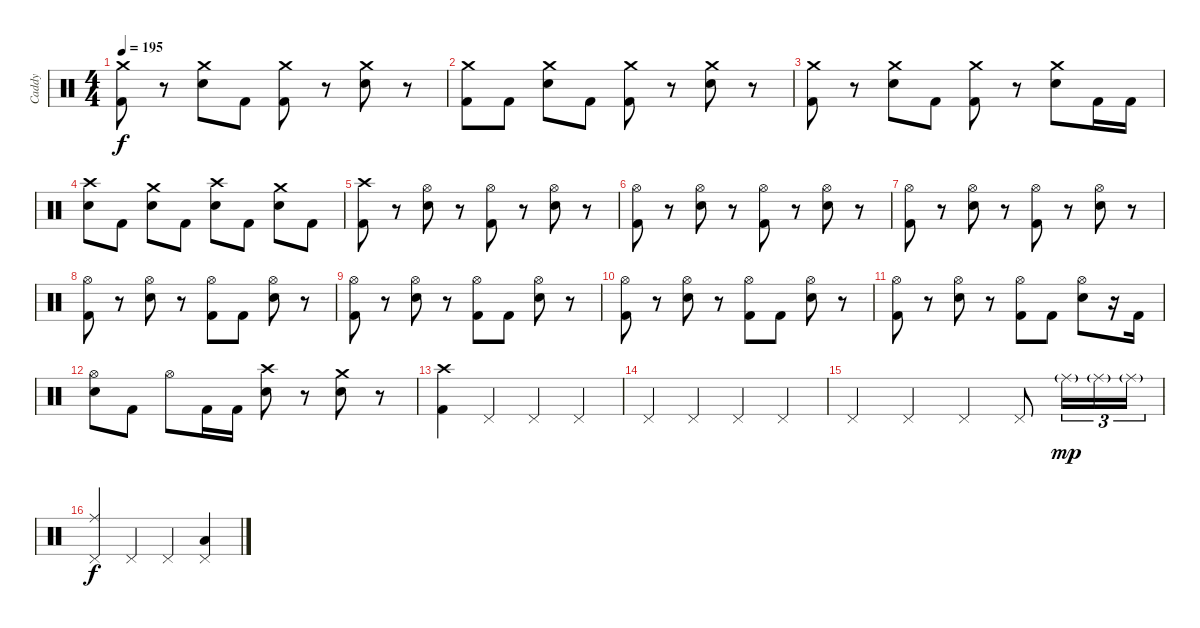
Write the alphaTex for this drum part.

\track ("Caddy" "Caddy") {instrument percussion}
\staff {score}
\articulation defaults
\ts (4 4)
\tempo 195
\clef neutral
\ks c
("Crash medium (hit)" "Kick (hit) 2").8{dy f} r.8 ("Crash medium (hit)" "Electric Snare (hit)").8 "Kick (hit) 2".8 ("Crash medium (hit)" "Kick (hit) 2").8 r.8 ("Crash medium (hit)" "Electric Snare (hit)").8 r.8 |
("Crash medium (hit)" "Kick (hit) 2").8 "Kick (hit) 2".8 ("Crash medium (hit)" "Electric Snare (hit)").8 "Kick (hit) 2".8 ("Crash medium (hit)" "Kick (hit) 2").8 r.8 ("Crash medium (hit)" "Electric Snare (hit)").8 r.8 |
("Crash medium (hit)" "Kick (hit) 2").8 r.8 ("Crash medium (hit)" "Electric Snare (hit)").8 "Kick (hit) 2".8 ("Crash medium (hit)" "Kick (hit) 2").8 r.8 ("Crash medium (hit)" "Electric Snare (hit)").8 "Kick (hit) 2".16 "Kick (hit) 2".16 |
("Crash high (hit)" "Electric Snare (hit)").8 "Kick (hit) 2".8 ("Crash medium (hit)" "Electric Snare (hit)").8 "Kick (hit) 2".8 ("Crash high (hit)" "Electric Snare (hit)").8 "Kick (hit) 2".8 ("Crash medium (hit)" "Electric Snare (hit)").8 "Kick (hit) 2".8 |
("Crash high (hit)" "Kick (hit) 2").8 r.8 ("Hi-Hat (open)" "Electric Snare (hit)").8 r.8 ("Hi-Hat (open)" "Kick (hit) 2").8 r.8 ("Hi-Hat (open)" "Electric Snare (hit)").8 r.8 |
("Hi-Hat (open)" "Kick (hit) 2").8 r.8 ("Hi-Hat (open)" "Electric Snare (hit)").8 r.8 ("Hi-Hat (open)" "Kick (hit) 2").8 r.8 ("Hi-Hat (open)" "Electric Snare (hit)").8 r.8 |
("Hi-Hat (open)" "Kick (hit) 2").8 r.8 ("Hi-Hat (open)" "Electric Snare (hit)").8 r.8 ("Hi-Hat (open)" "Kick (hit) 2").8 r.8 ("Hi-Hat (open)" "Electric Snare (hit)").8 r.8 |
("Hi-Hat (open)" "Kick (hit) 2").8 r.8 ("Hi-Hat (open)" "Electric Snare (hit)").8 r.8 ("Hi-Hat (open)" "Kick (hit) 2").8 "Kick (hit) 2".8 ("Hi-Hat (open)" "Electric Snare (hit)").8 r.8 |
("Hi-Hat (open)" "Kick (hit) 2").8 r.8 ("Hi-Hat (open)" "Electric Snare (hit)").8 r.8 ("Hi-Hat (open)" "Kick (hit) 2").8 "Kick (hit) 2".8 ("Hi-Hat (open)" "Electric Snare (hit)").8 r.8 |
("Hi-Hat (open)" "Kick (hit) 2").8 r.8 ("Hi-Hat (open)" "Electric Snare (hit)").8 r.8 ("Hi-Hat (open)" "Kick (hit) 2").8 "Kick (hit) 2".8 ("Hi-Hat (open)" "Electric Snare (hit)").8 r.8 |
("Hi-Hat (open)" "Kick (hit) 2").8 r.8 ("Hi-Hat (open)" "Electric Snare (hit)").8 r.8 ("Hi-Hat (open)" "Kick (hit) 2").8 "Kick (hit) 2".8 ("Hi-Hat (open)" "Electric Snare (hit)").8 r.16 "Kick (hit) 2".16 |
("Hi-Hat (open)" "Electric Snare (hit)").8 "Kick (hit) 2".8 "Hi-Hat (open)".8 "Kick (hit) 2".16 "Kick (hit) 2".16 ("Crash high (hit)" "Electric Snare (hit)").8 r.8 ("Crash medium (hit)" "Electric Snare (hit)").8 r.8 |
("Crash high (hit)" "Kick (hit) 2").4 "Pedal Hi-Hat (hit)".4 "Pedal Hi-Hat (hit)".4 "Pedal Hi-Hat (hit)".4 |
"Pedal Hi-Hat (hit)".4 "Pedal Hi-Hat (hit)".4 "Pedal Hi-Hat (hit)".4 "Pedal Hi-Hat (hit)".4 |
"Pedal Hi-Hat (hit)".4 "Pedal Hi-Hat (hit)".4 "Pedal Hi-Hat (hit)".4 "Pedal Hi-Hat (hit)".8 "Ride (middle)"{g}.16{tu (3 2) dy mp} "Ride (middle)"{g}.16{tu (3 2)} "Ride (middle)"{g}.16{tu (3 2)} |
("Pedal Hi-Hat (hit)" "Ride (middle)").4{dy f} "Pedal Hi-Hat (hit)".4 "Pedal Hi-Hat (hit)".4 ("Pedal Hi-Hat (hit)" "Low Tom (hit)").4
